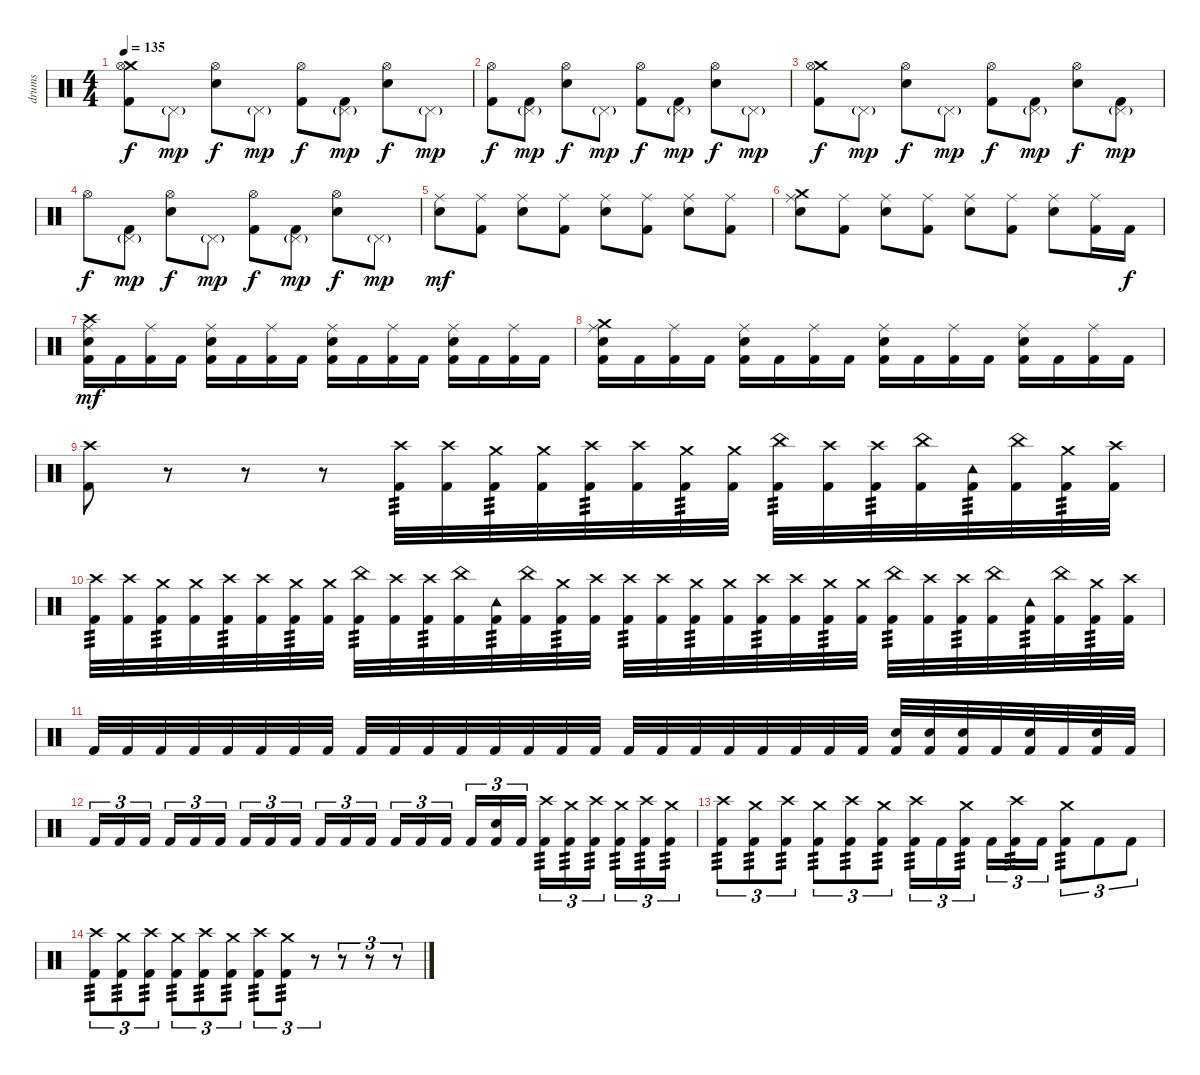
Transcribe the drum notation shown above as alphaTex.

\track ("drums" "drums") {instrument percussion}
\staff {score}
\articulation defaults
\ts (4 4)
\tempo 135
\clef neutral
\ks c
("Crash medium (hit)" "Hi-Hat (open)" "Kick (hit) 2").8{dy f} "Pedal Hi-Hat (hit)"{g}.8{dy mp} ("Hi-Hat (open)" "Snare (hit) 2").8{dy f} "Pedal Hi-Hat (hit)"{g}.8{dy mp} ("Hi-Hat (open)" "Kick (hit) 2").8{dy f} ("Pedal Hi-Hat (hit)"{g} "Kick (hit) 2").8{dy mp} ("Hi-Hat (open)" "Snare (hit) 2").8{dy f} "Pedal Hi-Hat (hit)"{g}.8{dy mp} |
("Hi-Hat (open)" "Kick (hit) 2").8{dy f} ("Pedal Hi-Hat (hit)"{g} "Kick (hit) 2").8{dy mp} ("Hi-Hat (open)" "Snare (hit) 2").8{dy f} "Pedal Hi-Hat (hit)"{g}.8{dy mp} ("Hi-Hat (open)" "Kick (hit) 2").8{dy f} ("Pedal Hi-Hat (hit)"{g} "Kick (hit) 2").8{dy mp} ("Hi-Hat (open)" "Snare (hit) 2").8{dy f} "Pedal Hi-Hat (hit)"{g}.8{dy mp} |
("Crash medium (hit)" "Hi-Hat (open)" "Kick (hit) 2").8{dy f} "Pedal Hi-Hat (hit)"{g}.8{dy mp} ("Hi-Hat (open)" "Snare (hit) 2").8{dy f} "Pedal Hi-Hat (hit)"{g}.8{dy mp} ("Hi-Hat (open)" "Kick (hit) 2").8{dy f} ("Pedal Hi-Hat (hit)"{g} "Kick (hit) 2").8{dy mp} ("Hi-Hat (open)" "Snare (hit) 2").8{dy f} ("Pedal Hi-Hat (hit)"{g} "Kick (hit) 2").8{dy mp} |
"Hi-Hat (open)".8{dy f} ("Pedal Hi-Hat (hit)"{g} "Kick (hit) 2").8{dy mp} ("Hi-Hat (open)" "Snare (hit) 2").8{dy f} "Pedal Hi-Hat (hit)"{g}.8{dy mp} ("Hi-Hat (open)" "Kick (hit) 2").8{dy f} ("Pedal Hi-Hat (hit)"{g} "Kick (hit) 2").8{dy mp} ("Hi-Hat (open)" "Snare (hit) 2").8{dy f} "Pedal Hi-Hat (hit)"{g}.8{dy mp} |
("Ride (middle)" "Snare (hit) 2").8{dy mf} ("Ride (middle)" "Kick (hit) 2").8 ("Ride (middle)" "Snare (hit) 2").8 ("Ride (middle)" "Kick (hit) 2").8 ("Ride (middle)" "Snare (hit) 2").8 ("Ride (middle)" "Kick (hit) 2").8 ("Ride (middle)" "Snare (hit) 2").8 ("Ride (middle)" "Kick (hit) 2").8 |
("Crash medium (hit)" "Ride (middle)" "Snare (hit) 2").8 ("Ride (middle)" "Kick (hit) 2").8 ("Ride (middle)" "Snare (hit) 2").8 ("Ride (middle)" "Kick (hit) 2").8 ("Ride (middle)" "Snare (hit) 2").8 ("Ride (middle)" "Kick (hit) 2").8 ("Ride (middle)" "Snare (hit) 2").8 ("Ride (middle)" "Kick (hit) 2").16 "Kick (hit) 2".16{dy f} |
("Crash high (hit)" "Ride (middle)" "Snare (hit) 2" "Kick (hit) 2").16{dy mf} "Kick (hit) 2".16 ("Ride (middle)" "Kick (hit) 2").16 "Kick (hit) 2".16 ("Ride (middle)" "Snare (hit) 2" "Kick (hit) 2").16 "Kick (hit) 2".16 ("Ride (middle)" "Kick (hit) 2").16 "Kick (hit) 2".16 ("Ride (middle)" "Snare (hit) 2" "Kick (hit) 2").16 "Kick (hit) 2".16 ("Ride (middle)" "Kick (hit) 2").16 "Kick (hit) 2".16 ("Ride (middle)" "Snare (hit) 2" "Kick (hit) 2").16 "Kick (hit) 2".16 ("Ride (middle)" "Kick (hit) 2").16 "Kick (hit) 2".16 |
("Crash medium (hit)" "Ride (middle)" "Snare (hit) 2" "Kick (hit) 2").16 "Kick (hit) 2".16 ("Ride (middle)" "Kick (hit) 2").16 "Kick (hit) 2".16 ("Ride (middle)" "Snare (hit) 2" "Kick (hit) 2").16 "Kick (hit) 2".16 ("Ride (middle)" "Kick (hit) 2").16 "Kick (hit) 2".16 ("Ride (middle)" "Snare (hit) 2" "Kick (hit) 2").16 "Kick (hit) 2".16 ("Ride (middle)" "Kick (hit) 2").16 "Kick (hit) 2".16 ("Ride (middle)" "Snare (hit) 2" "Kick (hit) 2").16 "Kick (hit) 2".16 ("Ride (middle)" "Kick (hit) 2").16 "Kick (hit) 2".16 |
("Crash high (hit)" "Kick (hit) 2").8 r.8 r.8 r.8 ("Crash high (hit)" "Kick (hit) 2").32{tp 3} ("Crash high (hit)" "Kick (hit) 2").32 ("Crash medium (hit)" "Kick (hit) 2").32{tp 3} ("Crash medium (hit)" "Kick (hit) 2").32 ("Crash high (hit)" "Kick (hit) 2").32{tp 3} ("Crash high (hit)" "Kick (hit) 2").32 ("Crash medium (hit)" "Kick (hit) 2").32{tp 3} ("Crash medium (hit)" "Kick (hit) 2").32 ("China (hit)" "Kick (hit) 2").32{tp 3} ("Crash high (hit)" "Kick (hit) 2").32 ("Crash high (hit)" "Kick (hit) 2").32{tp 3} ("China (hit)" "Kick (hit) 2").32 ("Tambourine (hit)" "Kick (hit) 2").32{tp 3} ("China (hit)" "Kick (hit) 2").32 ("Crash medium (hit)" "Kick (hit) 2").32{tp 3} ("Crash high (hit)" "Kick (hit) 2").32 |
("Crash high (hit)" "Kick (hit) 2").32{tp 3} ("Crash high (hit)" "Kick (hit) 2").32 ("Crash medium (hit)" "Kick (hit) 2").32{tp 3} ("Crash medium (hit)" "Kick (hit) 2").32 ("Crash high (hit)" "Kick (hit) 2").32{tp 3} ("Crash high (hit)" "Kick (hit) 2").32 ("Crash medium (hit)" "Kick (hit) 2").32{tp 3} ("Crash medium (hit)" "Kick (hit) 2").32 ("China (hit)" "Kick (hit) 2").32{tp 3} ("Crash high (hit)" "Kick (hit) 2").32 ("Crash high (hit)" "Kick (hit) 2").32{tp 3} ("China (hit)" "Kick (hit) 2").32 ("Tambourine (hit)" "Kick (hit) 2").32{tp 3} ("China (hit)" "Kick (hit) 2").32 ("Crash medium (hit)" "Kick (hit) 2").32{tp 3} ("Crash high (hit)" "Kick (hit) 2").32 ("Crash high (hit)" "Kick (hit) 2").32{tp 3} ("Crash high (hit)" "Kick (hit) 2").32 ("Crash medium (hit)" "Kick (hit) 2").32{tp 3} ("Crash medium (hit)" "Kick (hit) 2").32 ("Crash high (hit)" "Kick (hit) 2").32{tp 3} ("Crash high (hit)" "Kick (hit) 2").32 ("Crash medium (hit)" "Kick (hit) 2").32{tp 3} ("Crash medium (hit)" "Kick (hit) 2").32 ("China (hit)" "Kick (hit) 2").32{tp 3} ("Crash high (hit)" "Kick (hit) 2").32 ("Crash high (hit)" "Kick (hit) 2").32{tp 3} ("China (hit)" "Kick (hit) 2").32 ("Tambourine (hit)" "Kick (hit) 2").32{tp 3} ("China (hit)" "Kick (hit) 2").32 ("Crash medium (hit)" "Kick (hit) 2").32{tp 3} ("Crash high (hit)" "Kick (hit) 2").32 |
"Kick (hit) 2".32 "Kick (hit) 2".32 "Kick (hit) 2".32 "Kick (hit) 2".32 "Kick (hit) 2".32 "Kick (hit) 2".32 "Kick (hit) 2".32 "Kick (hit) 2".32 "Kick (hit) 2".32 "Kick (hit) 2".32 "Kick (hit) 2".32 "Kick (hit) 2".32 "Kick (hit) 2".32 "Kick (hit) 2".32 "Kick (hit) 2".32 "Kick (hit) 2".32 "Kick (hit) 2".32 "Kick (hit) 2".32 "Kick (hit) 2".32 "Kick (hit) 2".32 "Kick (hit) 2".32 "Kick (hit) 2".32 "Kick (hit) 2".32 "Kick (hit) 2".32 ("Snare (hit) 2" "Kick (hit) 2").32 ("Snare (hit) 2" "Kick (hit) 2").32 ("Snare (hit) 2" "Kick (hit) 2").32 "Kick (hit) 2".32 ("Snare (hit) 2" "Kick (hit) 2").32 "Kick (hit) 2".32 ("Snare (hit) 2" "Kick (hit) 2").32 "Kick (hit) 2".32 |
"Kick (hit) 2".16{tu (3 2)} "Kick (hit) 2".16{tu (3 2)} "Kick (hit) 2".16{tu (3 2) beam splitsecondary} "Kick (hit) 2".16{tu (3 2)} "Kick (hit) 2".16{tu (3 2)} "Kick (hit) 2".16{tu (3 2)} "Kick (hit) 2".16{tu (3 2)} "Kick (hit) 2".16{tu (3 2)} "Kick (hit) 2".16{tu (3 2) beam splitsecondary} "Kick (hit) 2".16{tu (3 2)} "Kick (hit) 2".16{tu (3 2)} "Kick (hit) 2".16{tu (3 2)} "Kick (hit) 2".16{tu (3 2)} "Kick (hit) 2".16{tu (3 2)} "Kick (hit) 2".16{tu (3 2) beam splitsecondary} "Kick (hit) 2".16{tu (3 2)} ("Snare (hit) 2" "Kick (hit) 2").16{tu (3 2)} "Kick (hit) 2".16{tu (3 2)} ("Crash high (hit)" "Kick (hit) 2").16{tu (3 2) tp 3} ("Crash medium (hit)" "Kick (hit) 2").16{tu (3 2) tp 3} ("Crash high (hit)" "Kick (hit) 2").16{tu (3 2) tp 3 beam splitsecondary} ("Crash medium (hit)" "Kick (hit) 2").16{tu (3 2) tp 3} ("Crash high (hit)" "Kick (hit) 2").16{tu (3 2) tp 3} ("Crash medium (hit)" "Kick (hit) 2").16{tu (3 2) tp 3} |
("Crash high (hit)" "Kick (hit) 2").8{tu (3 2) tp 3} ("Crash medium (hit)" "Kick (hit) 2").8{tu (3 2) tp 3} ("Crash high (hit)" "Kick (hit) 2").8{tu (3 2) tp 3} ("Crash medium (hit)" "Kick (hit) 2").8{tu (3 2) tp 3} ("Crash high (hit)" "Kick (hit) 2").8{tu (3 2) tp 3} ("Crash medium (hit)" "Kick (hit) 2").8{tu (3 2) tp 3} ("Crash high (hit)" "Kick (hit) 2").16{tu (3 2) tp 3} "Kick (hit) 2".16{tu (3 2)} ("Crash medium (hit)" "Kick (hit) 2").16{tu (3 2) tp 3 beam splitsecondary} "Kick (hit) 2".16{tu (3 2)} ("Crash high (hit)" "Kick (hit) 2").16{tu (3 2) tp 3} "Kick (hit) 2".16{tu (3 2)} ("Crash medium (hit)" "Kick (hit) 2").8{tu (3 2) tp 3} "Kick (hit) 2".8{tu (3 2)} "Kick (hit) 2".8{tu (3 2)} |
("Crash high (hit)" "Kick (hit) 2").8{tu (3 2) tp 3} ("Crash medium (hit)" "Kick (hit) 2").8{tu (3 2) tp 3} ("Crash high (hit)" "Kick (hit) 2").8{tu (3 2) tp 3} ("Crash medium (hit)" "Kick (hit) 2").8{tu (3 2) tp 3} ("Crash high (hit)" "Kick (hit) 2").8{tu (3 2) tp 3} ("Crash medium (hit)" "Kick (hit) 2").8{tu (3 2) tp 3} ("Crash high (hit)" "Kick (hit) 2").8{tu (3 2) tp 3} ("Crash medium (hit)" "Kick (hit) 2").8{tu (3 2) tp 3} r.8{tu (3 2)} r.8{tu (3 2)} r.8{tu (3 2)} r.8{tu (3 2)}
